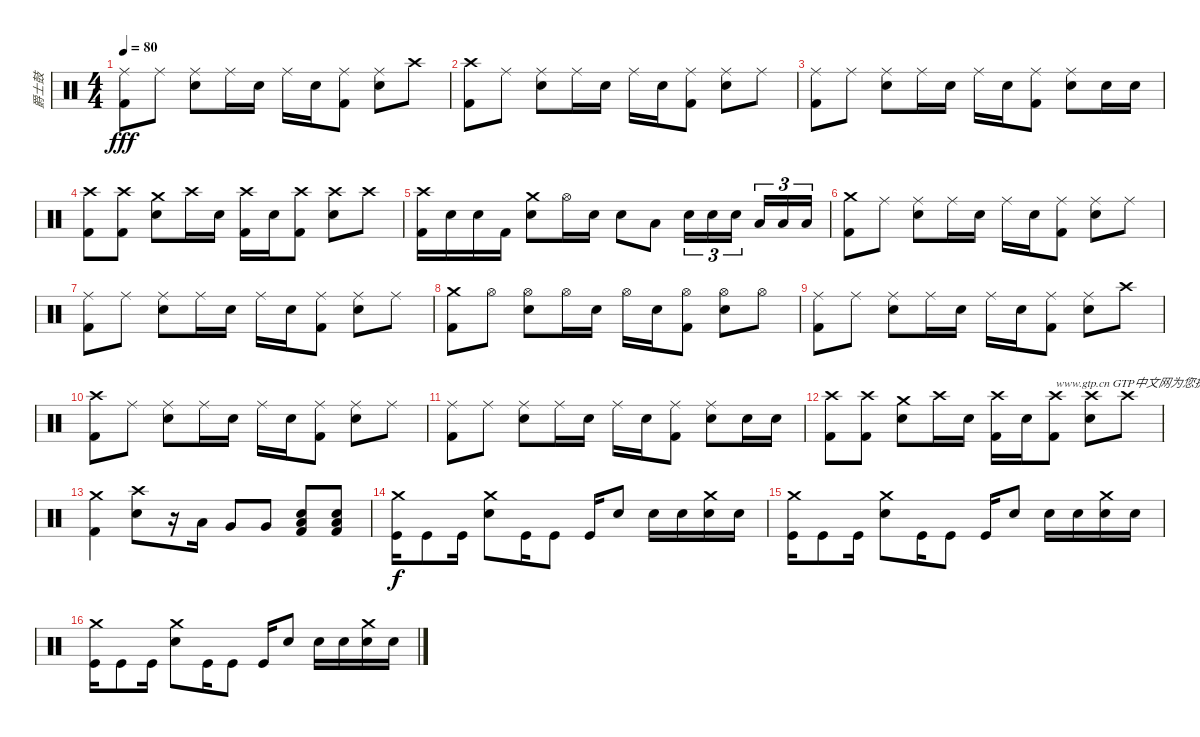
\track ("爵士鼓" "爵士鼓") {instrument percussion}
\staff {score}
\articulation defaults
\ts (4 4)
\tempo 80
\clef neutral
\ks c
("Ride (middle)" "Kick (hit) 2").8{dy fff} "Ride (middle)".8 ("Ride (middle)" "Electric Snare (hit)").8 "Ride (middle)".16 "Electric Snare (hit)".16 "Ride (middle)".16 "Electric Snare (hit)".16 ("Ride (middle)" "Kick (hit) 2").8 ("Ride (middle)" "Electric Snare (hit)").8 "Crash high (hit)".8 |
("Crash high (hit)" "Kick (hit) 2").8 "Ride (middle)".8 ("Ride (middle)" "Electric Snare (hit)").8 "Ride (middle)".16 "Electric Snare (hit)".16 "Ride (middle)".16 "Electric Snare (hit)".16 ("Ride (middle)" "Kick (hit) 2").8 ("Ride (middle)" "Electric Snare (hit)").8 "Ride (middle)".8 |
("Ride (middle)" "Kick (hit) 2").8 "Ride (middle)".8 ("Ride (middle)" "Electric Snare (hit)").8 "Ride (middle)".16 "Electric Snare (hit)".16 "Ride (middle)".16 "Electric Snare (hit)".16 ("Ride (middle)" "Kick (hit) 2").8 ("Ride (middle)" "Electric Snare (hit)").8 "Electric Snare (hit)".16 "Electric Snare (hit)".16 |
("Crash high (hit)" "Kick (hit) 2").8 ("Crash high (hit)" "Kick (hit) 2").8 ("Crash medium (hit)" "Electric Snare (hit)").8 "Crash high (hit)".16 "Electric Snare (hit)".16 ("Crash high (hit)" "Kick (hit) 2").16 "Electric Snare (hit)".16 ("Crash high (hit)" "Kick (hit) 2").8 ("Crash high (hit)" "Electric Snare (hit)").8 "Crash high (hit)".8 |
("Crash high (hit)" "Kick (hit) 2").16 "Electric Snare (hit)".16 "Electric Snare (hit)".16 "Kick (hit) 2".16 ("Crash medium (hit)" "Electric Snare (hit)").8 "Hi-Hat (open)".16 "Electric Snare (hit)".16 "Electric Snare (hit)".8 "Low Tom (hit)".8 "Electric Snare (hit)".16{tu (3 2)} "Electric Snare (hit)".16{tu (3 2)} "Electric Snare (hit)".16{tu (3 2) beam splitsecondary} "Low Tom (hit)".16{tu (3 2)} "Low Tom (hit)".16{tu (3 2)} "Low Tom (hit)".16{tu (3 2)} |
("Crash medium (hit)" "Kick (hit) 2").8 "Ride (middle)".8 ("Ride (middle)" "Electric Snare (hit)").8 "Ride (middle)".16 "Electric Snare (hit)".16 "Ride (middle)".16 "Electric Snare (hit)".16 ("Ride (middle)" "Kick (hit) 2").8 ("Ride (middle)" "Electric Snare (hit)").8 "Ride (middle)".8 |
("Ride (middle)" "Kick (hit) 2").8 "Ride (middle)".8 ("Ride (middle)" "Electric Snare (hit)").8 "Ride (middle)".16 "Electric Snare (hit)".16 "Ride (middle)".16 "Electric Snare (hit)".16 ("Ride (middle)" "Kick (hit) 2").8 ("Ride (middle)" "Electric Snare (hit)").8 "Ride (middle)".8 |
("Crash medium (hit)" "Kick (hit) 2").8 "Hi-Hat (open)".8 ("Hi-Hat (open)" "Electric Snare (hit)").8 "Hi-Hat (open)".16 "Electric Snare (hit)".16 "Hi-Hat (open)".16 "Electric Snare (hit)".16 ("Hi-Hat (open)" "Kick (hit) 2").8 ("Hi-Hat (open)" "Electric Snare (hit)").8 "Hi-Hat (open)".8 |
("Ride (middle)" "Kick (hit) 2").8 "Ride (middle)".8 ("Ride (middle)" "Electric Snare (hit)").8 "Ride (middle)".16 "Electric Snare (hit)".16 "Ride (middle)".16 "Electric Snare (hit)".16 ("Ride (middle)" "Kick (hit) 2").8 ("Ride (middle)" "Electric Snare (hit)").8 "Crash high (hit)".8 |
("Crash high (hit)" "Kick (hit) 2").8 "Ride (middle)".8 ("Ride (middle)" "Electric Snare (hit)").8 "Ride (middle)".16 "Electric Snare (hit)".16 "Ride (middle)".16 "Electric Snare (hit)".16 ("Ride (middle)" "Kick (hit) 2").8 ("Ride (middle)" "Electric Snare (hit)").8 "Ride (middle)".8 |
("Ride (middle)" "Kick (hit) 2").8 "Ride (middle)".8 ("Ride (middle)" "Electric Snare (hit)").8 "Ride (middle)".16 "Electric Snare (hit)".16 "Ride (middle)".16 "Electric Snare (hit)".16 ("Ride (middle)" "Kick (hit) 2").8 ("Ride (middle)" "Electric Snare (hit)").8 "Electric Snare (hit)".16 "Electric Snare (hit)".16 |
("Crash high (hit)" "Kick (hit) 2").8 ("Crash high (hit)" "Kick (hit) 2").8 ("Crash medium (hit)" "Electric Snare (hit)").8 "Crash high (hit)".16 "Electric Snare (hit)".16 ("Crash high (hit)" "Kick (hit) 2").16 "Electric Snare (hit)".16 ("Crash high (hit)" "Kick (hit) 2").8{txt "www.gtp.cn GTP中文网为您提供优秀的谱子"} ("Crash high (hit)" "Electric Snare (hit)").8 "Crash high (hit)".8 |
("Crash medium (hit)" "Kick (hit) 2").4 ("Crash high (hit)" "Electric Snare (hit)").8 r.16 "Low Tom (hit)".16 "Very Low Tom (hit)".8 "Very Low Tom (hit)".8 ("Electric Snare (hit)" "Low Floor Tom (hit)" "Kick (hit) 2").8 ("Electric Snare (hit)" "Low Floor Tom (hit)" "Kick (hit) 2").8 |
("Kick (hit)" "Crash medium (hit)").16{dy f} "Kick (hit)".8 "Kick (hit)".16 ("Snare (hit) 2" "Crash medium (hit)").8 "Kick (hit)".16 "Kick (hit)".8 "Kick (hit)".16 "Snare (hit) 2".8 "Snare (hit) 2".16 "Snare (hit) 2".16 ("Snare (hit) 2" "Crash medium (hit)").16 "Snare (hit) 2".16 |
("Kick (hit)" "Crash medium (hit)").16 "Kick (hit)".8 "Kick (hit)".16 ("Snare (hit) 2" "Crash medium (hit)").8 "Kick (hit)".16 "Kick (hit)".8 "Kick (hit)".16 "Snare (hit) 2".8 "Snare (hit) 2".16 "Snare (hit) 2".16 ("Snare (hit) 2" "Crash medium (hit)").16 "Snare (hit) 2".16 |
("Kick (hit)" "Crash medium (hit)").16 "Kick (hit)".8 "Kick (hit)".16 ("Snare (hit) 2" "Crash medium (hit)").8 "Kick (hit)".16 "Kick (hit)".8 "Kick (hit)".16 "Snare (hit) 2".8 "Snare (hit) 2".16 "Snare (hit) 2".16 ("Snare (hit) 2" "Crash medium (hit)").16 "Snare (hit) 2".16
